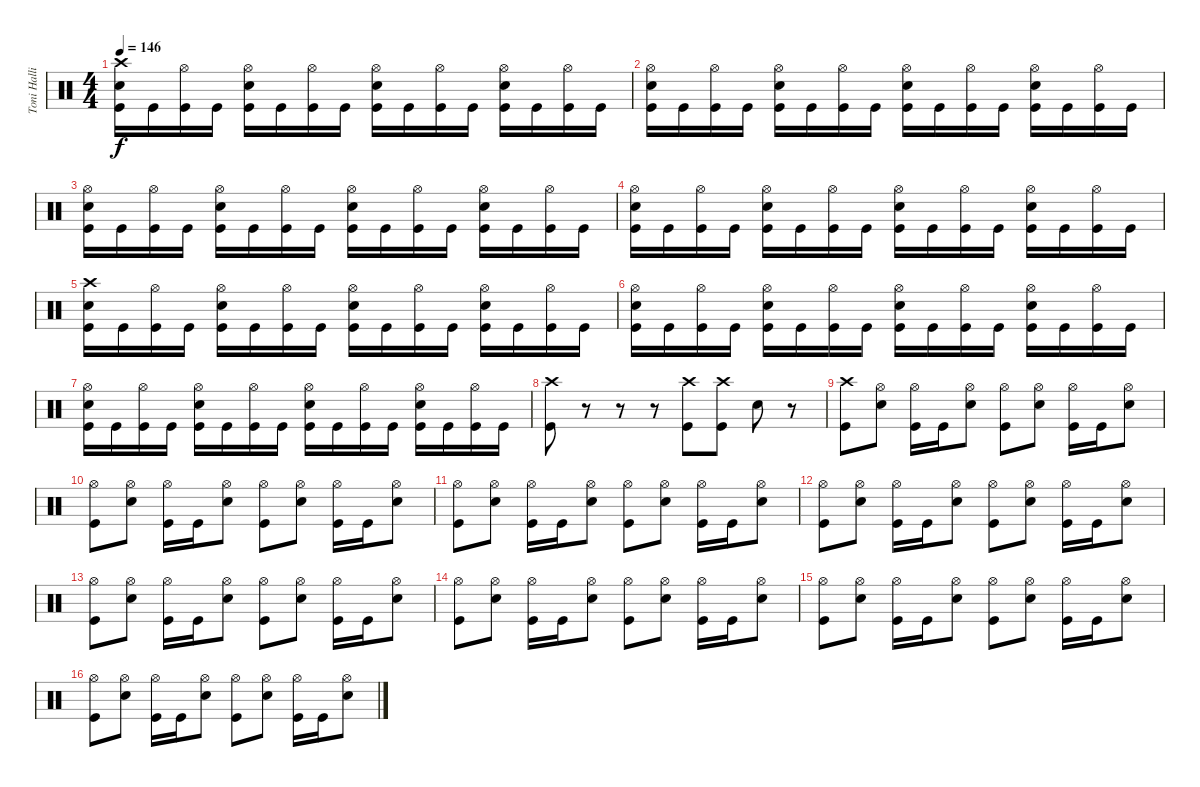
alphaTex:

\track ("Toni Hallio" "Toni Halli") {instrument percussion}
\staff {score}
\articulation defaults
\ts (4 4)
\tempo 146
\clef neutral
\ks c
("Crash high (hit)" "Snare (hit) 2" "Kick (hit)").16{dy f} "Kick (hit)".16 ("Hi-Hat (open)" "Kick (hit)").16 "Kick (hit)".16 ("Hi-Hat (open)" "Snare (hit) 2" "Kick (hit)").16 "Kick (hit)".16 ("Hi-Hat (open)" "Kick (hit)").16 "Kick (hit)".16 ("Hi-Hat (open)" "Snare (hit) 2" "Kick (hit)").16 "Kick (hit)".16 ("Hi-Hat (open)" "Kick (hit)").16 "Kick (hit)".16 ("Hi-Hat (open)" "Snare (hit) 2" "Kick (hit)").16 "Kick (hit)".16 ("Hi-Hat (open)" "Kick (hit)").16 "Kick (hit)".16 |
("Hi-Hat (open)" "Snare (hit) 2" "Kick (hit)").16 "Kick (hit)".16 ("Hi-Hat (open)" "Kick (hit)").16 "Kick (hit)".16 ("Hi-Hat (open)" "Snare (hit) 2" "Kick (hit)").16 "Kick (hit)".16 ("Hi-Hat (open)" "Kick (hit)").16 "Kick (hit)".16 ("Hi-Hat (open)" "Snare (hit) 2" "Kick (hit)").16 "Kick (hit)".16 ("Hi-Hat (open)" "Kick (hit)").16 "Kick (hit)".16 ("Hi-Hat (open)" "Snare (hit) 2" "Kick (hit)").16 "Kick (hit)".16 ("Hi-Hat (open)" "Kick (hit)").16 "Kick (hit)".16 |
("Hi-Hat (open)" "Snare (hit) 2" "Kick (hit)").16 "Kick (hit)".16 ("Hi-Hat (open)" "Kick (hit)").16 "Kick (hit)".16 ("Hi-Hat (open)" "Snare (hit) 2" "Kick (hit)").16 "Kick (hit)".16 ("Hi-Hat (open)" "Kick (hit)").16 "Kick (hit)".16 ("Hi-Hat (open)" "Snare (hit) 2" "Kick (hit)").16 "Kick (hit)".16 ("Hi-Hat (open)" "Kick (hit)").16 "Kick (hit)".16 ("Hi-Hat (open)" "Snare (hit) 2" "Kick (hit)").16 "Kick (hit)".16 ("Hi-Hat (open)" "Kick (hit)").16 "Kick (hit)".16 |
("Hi-Hat (open)" "Snare (hit) 2" "Kick (hit)").16 "Kick (hit)".16 ("Hi-Hat (open)" "Kick (hit)").16 "Kick (hit)".16 ("Hi-Hat (open)" "Snare (hit) 2" "Kick (hit)").16 "Kick (hit)".16 ("Hi-Hat (open)" "Kick (hit)").16 "Kick (hit)".16 ("Hi-Hat (open)" "Snare (hit) 2" "Kick (hit)").16 "Kick (hit)".16 ("Hi-Hat (open)" "Kick (hit)").16 "Kick (hit)".16 ("Hi-Hat (open)" "Snare (hit) 2" "Kick (hit)").16 "Kick (hit)".16 ("Hi-Hat (open)" "Kick (hit)").16 "Kick (hit)".16 |
("Crash high (hit)" "Snare (hit) 2" "Kick (hit)").16 "Kick (hit)".16 ("Hi-Hat (open)" "Kick (hit)").16 "Kick (hit)".16 ("Hi-Hat (open)" "Snare (hit) 2" "Kick (hit)").16 "Kick (hit)".16 ("Hi-Hat (open)" "Kick (hit)").16 "Kick (hit)".16 ("Hi-Hat (open)" "Snare (hit) 2" "Kick (hit)").16 "Kick (hit)".16 ("Hi-Hat (open)" "Kick (hit)").16 "Kick (hit)".16 ("Hi-Hat (open)" "Snare (hit) 2" "Kick (hit)").16 "Kick (hit)".16 ("Hi-Hat (open)" "Kick (hit)").16 "Kick (hit)".16 |
("Hi-Hat (open)" "Snare (hit) 2" "Kick (hit)").16 "Kick (hit)".16 ("Hi-Hat (open)" "Kick (hit)").16 "Kick (hit)".16 ("Hi-Hat (open)" "Snare (hit) 2" "Kick (hit)").16 "Kick (hit)".16 ("Hi-Hat (open)" "Kick (hit)").16 "Kick (hit)".16 ("Hi-Hat (open)" "Snare (hit) 2" "Kick (hit)").16 "Kick (hit)".16 ("Hi-Hat (open)" "Kick (hit)").16 "Kick (hit)".16 ("Hi-Hat (open)" "Snare (hit) 2" "Kick (hit)").16 "Kick (hit)".16 ("Hi-Hat (open)" "Kick (hit)").16 "Kick (hit)".16 |
("Hi-Hat (open)" "Snare (hit) 2" "Kick (hit)").16 "Kick (hit)".16 ("Hi-Hat (open)" "Kick (hit)").16 "Kick (hit)".16 ("Hi-Hat (open)" "Snare (hit) 2" "Kick (hit)").16 "Kick (hit)".16 ("Hi-Hat (open)" "Kick (hit)").16 "Kick (hit)".16 ("Hi-Hat (open)" "Snare (hit) 2" "Kick (hit)").16 "Kick (hit)".16 ("Hi-Hat (open)" "Kick (hit)").16 "Kick (hit)".16 ("Hi-Hat (open)" "Snare (hit) 2" "Kick (hit)").16 "Kick (hit)".16 ("Hi-Hat (open)" "Kick (hit)").16 "Kick (hit)".16 |
("Crash high (hit)" "Kick (hit)").8 r.8 r.8 r.8 ("Crash high (hit)" "Kick (hit)").8 ("Crash high (hit)" "Kick (hit)").8 "Snare (hit) 2".8 r.8 |
("Crash high (hit)" "Kick (hit)").8 ("Hi-Hat (open)" "Snare (hit) 2").8 ("Hi-Hat (open)" "Kick (hit)").16 "Kick (hit)".16 ("Hi-Hat (open)" "Snare (hit) 2").8 ("Hi-Hat (open)" "Kick (hit)").8 ("Hi-Hat (open)" "Snare (hit) 2").8 ("Hi-Hat (open)" "Kick (hit)").16 "Kick (hit)".16 ("Hi-Hat (open)" "Snare (hit) 2").8 |
("Hi-Hat (open)" "Kick (hit)").8 ("Hi-Hat (open)" "Snare (hit) 2").8 ("Hi-Hat (open)" "Kick (hit)").16 "Kick (hit)".16 ("Hi-Hat (open)" "Snare (hit) 2").8 ("Hi-Hat (open)" "Kick (hit)").8 ("Hi-Hat (open)" "Snare (hit) 2").8 ("Hi-Hat (open)" "Kick (hit)").16 "Kick (hit)".16 ("Hi-Hat (open)" "Snare (hit) 2").8 |
("Hi-Hat (open)" "Kick (hit)").8 ("Hi-Hat (open)" "Snare (hit) 2").8 ("Hi-Hat (open)" "Kick (hit)").16 "Kick (hit)".16 ("Hi-Hat (open)" "Snare (hit) 2").8 ("Hi-Hat (open)" "Kick (hit)").8 ("Hi-Hat (open)" "Snare (hit) 2").8 ("Hi-Hat (open)" "Kick (hit)").16 "Kick (hit)".16 ("Hi-Hat (open)" "Snare (hit) 2").8 |
("Hi-Hat (open)" "Kick (hit)").8 ("Hi-Hat (open)" "Snare (hit) 2").8 ("Hi-Hat (open)" "Kick (hit)").16 "Kick (hit)".16 ("Hi-Hat (open)" "Snare (hit) 2").8 ("Hi-Hat (open)" "Kick (hit)").8 ("Hi-Hat (open)" "Snare (hit) 2").8 ("Hi-Hat (open)" "Kick (hit)").16 "Kick (hit)".16 ("Hi-Hat (open)" "Snare (hit) 2").8 |
("Hi-Hat (open)" "Kick (hit)").8 ("Hi-Hat (open)" "Snare (hit) 2").8 ("Hi-Hat (open)" "Kick (hit)").16 "Kick (hit)".16 ("Hi-Hat (open)" "Snare (hit) 2").8 ("Hi-Hat (open)" "Kick (hit)").8 ("Hi-Hat (open)" "Snare (hit) 2").8 ("Hi-Hat (open)" "Kick (hit)").16 "Kick (hit)".16 ("Hi-Hat (open)" "Snare (hit) 2").8 |
("Hi-Hat (open)" "Kick (hit)").8 ("Hi-Hat (open)" "Snare (hit) 2").8 ("Hi-Hat (open)" "Kick (hit)").16 "Kick (hit)".16 ("Hi-Hat (open)" "Snare (hit) 2").8 ("Hi-Hat (open)" "Kick (hit)").8 ("Hi-Hat (open)" "Snare (hit) 2").8 ("Hi-Hat (open)" "Kick (hit)").16 "Kick (hit)".16 ("Hi-Hat (open)" "Snare (hit) 2").8 |
("Hi-Hat (open)" "Kick (hit)").8 ("Hi-Hat (open)" "Snare (hit) 2").8 ("Hi-Hat (open)" "Kick (hit)").16 "Kick (hit)".16 ("Hi-Hat (open)" "Snare (hit) 2").8 ("Hi-Hat (open)" "Kick (hit)").8 ("Hi-Hat (open)" "Snare (hit) 2").8 ("Hi-Hat (open)" "Kick (hit)").16 "Kick (hit)".16 ("Hi-Hat (open)" "Snare (hit) 2").8 |
("Hi-Hat (open)" "Kick (hit)").8 ("Hi-Hat (open)" "Snare (hit) 2").8 ("Hi-Hat (open)" "Kick (hit)").16 "Kick (hit)".16 ("Hi-Hat (open)" "Snare (hit) 2").8 ("Hi-Hat (open)" "Kick (hit)").8 ("Hi-Hat (open)" "Snare (hit) 2").8 ("Hi-Hat (open)" "Kick (hit)").16 "Kick (hit)".16 ("Hi-Hat (open)" "Snare (hit) 2").8
